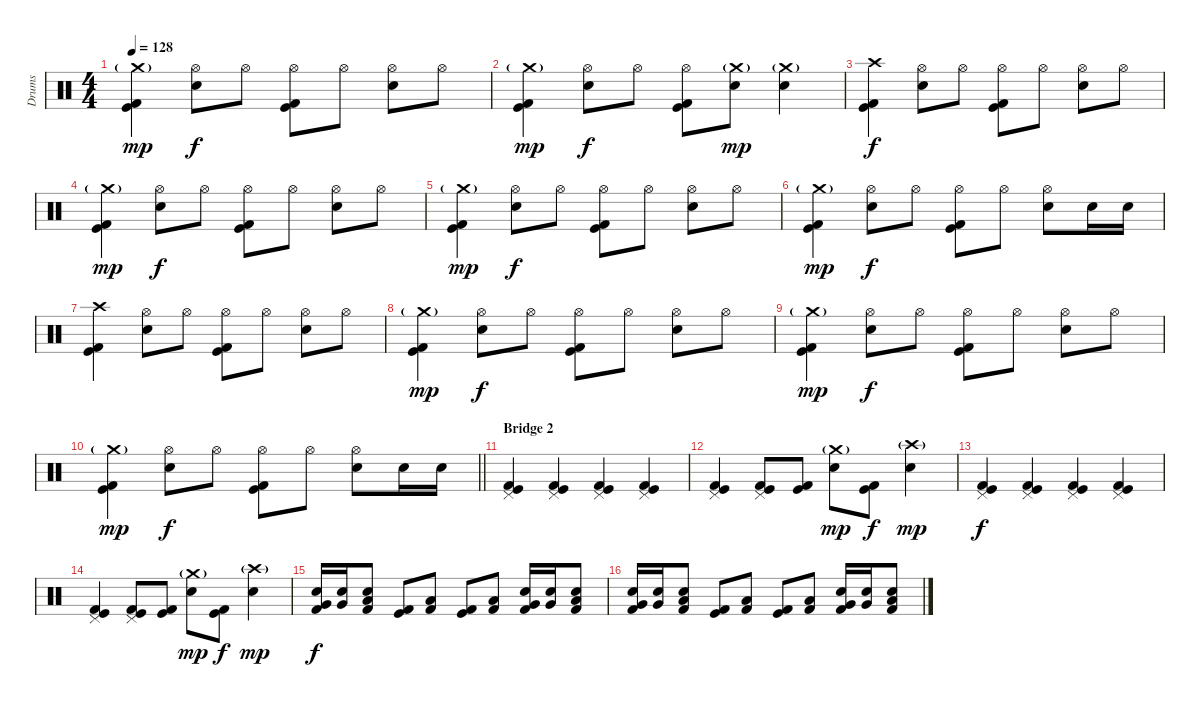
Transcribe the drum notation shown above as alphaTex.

\track ("Drums" "Drums") {instrument percussion}
\staff {score}
\articulation defaults
\ts (4 4)
\tempo 128
\clef neutral
\ks c
("Crash medium (hit)"{g} "Kick (hit)" "Kick (hit) 2").4{dy mp} ("Hi-Hat (open)" "Electric Snare (hit)").8{dy f} "Hi-Hat (open)".8 ("Hi-Hat (open)" "Kick (hit)" "Kick (hit) 2").8 "Hi-Hat (open)".8 ("Hi-Hat (open)" "Electric Snare (hit)").8 "Hi-Hat (open)".8 |
("Crash medium (hit)"{g} "Kick (hit)" "Kick (hit) 2").4{dy mp} ("Hi-Hat (open)" "Electric Snare (hit)").8{dy f} "Hi-Hat (open)".8 ("Hi-Hat (open)" "Kick (hit)" "Kick (hit) 2").8 ("Crash medium (hit)"{g} "Electric Snare (hit)").8{dy mp} ("Crash medium (hit)"{g} "Electric Snare (hit)").4 |
("Crash high (hit)" "Kick (hit)" "Kick (hit) 2").4{dy f} ("Hi-Hat (open)" "Electric Snare (hit)").8 "Hi-Hat (open)".8 ("Hi-Hat (open)" "Kick (hit)" "Kick (hit) 2").8 "Hi-Hat (open)".8 ("Hi-Hat (open)" "Electric Snare (hit)").8 "Hi-Hat (open)".8 |
("Crash medium (hit)"{g} "Kick (hit)" "Kick (hit) 2").4{dy mp} ("Hi-Hat (open)" "Electric Snare (hit)").8{dy f} "Hi-Hat (open)".8 ("Hi-Hat (open)" "Kick (hit)" "Kick (hit) 2").8 "Hi-Hat (open)".8 ("Hi-Hat (open)" "Electric Snare (hit)").8 "Hi-Hat (open)".8 |
("Crash medium (hit)"{g} "Kick (hit)" "Kick (hit) 2").4{dy mp} ("Hi-Hat (open)" "Electric Snare (hit)").8{dy f} "Hi-Hat (open)".8 ("Hi-Hat (open)" "Kick (hit)" "Kick (hit) 2").8 "Hi-Hat (open)".8 ("Hi-Hat (open)" "Electric Snare (hit)").8 "Hi-Hat (open)".8 |
("Crash medium (hit)"{g} "Kick (hit)" "Kick (hit) 2").4{dy mp} ("Hi-Hat (open)" "Electric Snare (hit)").8{dy f} "Hi-Hat (open)".8 ("Hi-Hat (open)" "Kick (hit)" "Kick (hit) 2").8 "Hi-Hat (open)".8 ("Hi-Hat (open)" "Electric Snare (hit)").8 "Electric Snare (hit)".16 "Electric Snare (hit)".16 |
("Crash high (hit)" "Kick (hit)" "Kick (hit) 2").4 ("Hi-Hat (open)" "Electric Snare (hit)").8 "Hi-Hat (open)".8 ("Hi-Hat (open)" "Kick (hit)" "Kick (hit) 2").8 "Hi-Hat (open)".8 ("Hi-Hat (open)" "Electric Snare (hit)").8 "Hi-Hat (open)".8 |
("Crash medium (hit)"{g} "Kick (hit)" "Kick (hit) 2").4{dy mp} ("Hi-Hat (open)" "Electric Snare (hit)").8{dy f} "Hi-Hat (open)".8 ("Hi-Hat (open)" "Kick (hit)" "Kick (hit) 2").8 "Hi-Hat (open)".8 ("Hi-Hat (open)" "Electric Snare (hit)").8 "Hi-Hat (open)".8 |
("Crash medium (hit)"{g} "Kick (hit)" "Kick (hit) 2").4{dy mp} ("Hi-Hat (open)" "Electric Snare (hit)").8{dy f} "Hi-Hat (open)".8 ("Hi-Hat (open)" "Kick (hit)" "Kick (hit) 2").8 "Hi-Hat (open)".8 ("Hi-Hat (open)" "Electric Snare (hit)").8 "Hi-Hat (open)".8 |
\barLineRight lightlight
("Crash medium (hit)"{g} "Kick (hit)" "Kick (hit) 2").4{dy mp} ("Hi-Hat (open)" "Electric Snare (hit)").8{dy f} "Hi-Hat (open)".8 ("Hi-Hat (open)" "Kick (hit)" "Kick (hit) 2").8 "Hi-Hat (open)".8 ("Hi-Hat (open)" "Electric Snare (hit)").8 "Electric Snare (hit)".16 "Electric Snare (hit)".16 |
\section ("" "Bridge 2")
("Pedal Hi-Hat (hit)" "Kick (hit)" "Kick (hit) 2").4 ("Pedal Hi-Hat (hit)" "Kick (hit)" "Kick (hit) 2").4 ("Pedal Hi-Hat (hit)" "Kick (hit)" "Kick (hit) 2").4 ("Pedal Hi-Hat (hit)" "Kick (hit)" "Kick (hit) 2").4 |
("Pedal Hi-Hat (hit)" "Kick (hit)" "Kick (hit) 2").4 ("Pedal Hi-Hat (hit)" "Kick (hit)" "Kick (hit) 2").8 ("Kick (hit)" "Kick (hit) 2").8 ("Crash medium (hit)"{g} "Electric Snare (hit)").8{dy mp} ("Kick (hit)" "Kick (hit) 2").8{dy f} ("Crash high (hit)"{g} "Electric Snare (hit)").4{dy mp} |
("Pedal Hi-Hat (hit)" "Kick (hit)" "Kick (hit) 2").4{dy f} ("Pedal Hi-Hat (hit)" "Kick (hit)" "Kick (hit) 2").4 ("Pedal Hi-Hat (hit)" "Kick (hit)" "Kick (hit) 2").4 ("Pedal Hi-Hat (hit)" "Kick (hit)" "Kick (hit) 2").4 |
("Pedal Hi-Hat (hit)" "Kick (hit)" "Kick (hit) 2").4 ("Pedal Hi-Hat (hit)" "Kick (hit)" "Kick (hit) 2").8 ("Kick (hit)" "Kick (hit) 2").8 ("Crash medium (hit)"{g} "Electric Snare (hit)").8{dy mp} ("Kick (hit)" "Kick (hit) 2").8{dy f} ("Crash high (hit)"{g} "Electric Snare (hit)").4{dy mp} |
("Kick (hit) 2" "Electric Snare (hit)" "Very Low Tom (hit)").16{dy f} ("Electric Snare (hit)" "Very Low Tom (hit)").16 ("Kick (hit) 2" "Electric Snare (hit)" "Low Floor Tom (hit)").8 ("Kick (hit) 2" "Kick (hit)").8 ("Kick (hit) 2" "Low Floor Tom (hit)").8 ("Kick (hit) 2" "Kick (hit)").8 ("Kick (hit) 2" "Low Floor Tom (hit)").8 ("Kick (hit) 2" "Electric Snare (hit)" "Very Low Tom (hit)").16 ("Electric Snare (hit)" "Very Low Tom (hit)").16 ("Kick (hit) 2" "Electric Snare (hit)" "Low Floor Tom (hit)").8 |
("Kick (hit) 2" "Electric Snare (hit)" "Very Low Tom (hit)").16 ("Electric Snare (hit)" "Very Low Tom (hit)").16 ("Kick (hit) 2" "Electric Snare (hit)" "Low Floor Tom (hit)").8 ("Kick (hit) 2" "Kick (hit)").8 ("Kick (hit) 2" "Low Floor Tom (hit)").8 ("Kick (hit) 2" "Kick (hit)").8 ("Kick (hit) 2" "Low Floor Tom (hit)").8 ("Kick (hit) 2" "Electric Snare (hit)" "Very Low Tom (hit)").16 ("Electric Snare (hit)" "Very Low Tom (hit)").16 ("Kick (hit) 2" "Electric Snare (hit)" "Low Floor Tom (hit)").8
